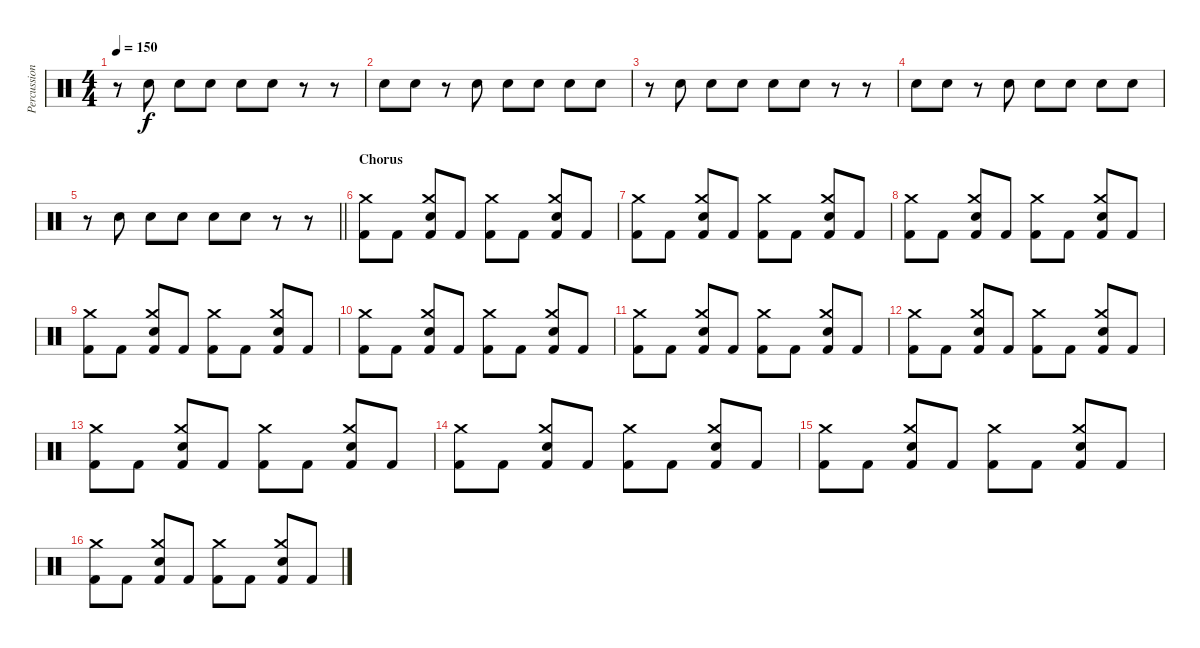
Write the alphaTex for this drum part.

\track ("Percussion" "Percussion") {instrument percussion}
\staff {score}
\articulation defaults
\ts (4 4)
\tempo 150
\clef neutral
\ks c
r.8{dy f} "Electric Snare (hit)".8 "Electric Snare (hit)".8 "Electric Snare (hit)".8 "Electric Snare (hit)".8 "Electric Snare (hit)".8 r.8 r.8 |
"Electric Snare (hit)".8 "Electric Snare (hit)".8 r.8 "Electric Snare (hit)".8 "Electric Snare (hit)".8 "Electric Snare (hit)".8 "Electric Snare (hit)".8 "Electric Snare (hit)".8 |
r.8 "Electric Snare (hit)".8 "Electric Snare (hit)".8 "Electric Snare (hit)".8 "Electric Snare (hit)".8 "Electric Snare (hit)".8 r.8 r.8 |
"Electric Snare (hit)".8 "Electric Snare (hit)".8 r.8 "Electric Snare (hit)".8 "Electric Snare (hit)".8 "Electric Snare (hit)".8 "Electric Snare (hit)".8 "Electric Snare (hit)".8 |
\barLineRight lightlight
r.8 "Electric Snare (hit)".8 "Electric Snare (hit)".8 "Electric Snare (hit)".8 "Electric Snare (hit)".8 "Electric Snare (hit)".8 r.8 r.8 |
\section ("" "Chorus")
("Crash medium (hit)" "Kick (hit) 2").8 "Kick (hit) 2".8 ("Crash medium (hit)" "Electric Snare (hit)" "Kick (hit) 2").8 "Kick (hit) 2".8 ("Crash medium (hit)" "Kick (hit) 2").8 "Kick (hit) 2".8 ("Crash medium (hit)" "Electric Snare (hit)" "Kick (hit) 2").8 "Kick (hit) 2".8 |
("Crash medium (hit)" "Kick (hit) 2").8 "Kick (hit) 2".8 ("Crash medium (hit)" "Electric Snare (hit)" "Kick (hit) 2").8 "Kick (hit) 2".8 ("Crash medium (hit)" "Kick (hit) 2").8 "Kick (hit) 2".8 ("Crash medium (hit)" "Electric Snare (hit)" "Kick (hit) 2").8 "Kick (hit) 2".8 |
("Crash medium (hit)" "Kick (hit) 2").8 "Kick (hit) 2".8 ("Crash medium (hit)" "Electric Snare (hit)" "Kick (hit) 2").8 "Kick (hit) 2".8 ("Crash medium (hit)" "Kick (hit) 2").8 "Kick (hit) 2".8 ("Crash medium (hit)" "Electric Snare (hit)" "Kick (hit) 2").8 "Kick (hit) 2".8 |
("Crash medium (hit)" "Kick (hit) 2").8 "Kick (hit) 2".8 ("Crash medium (hit)" "Electric Snare (hit)" "Kick (hit) 2").8 "Kick (hit) 2".8 ("Crash medium (hit)" "Kick (hit) 2").8 "Kick (hit) 2".8 ("Crash medium (hit)" "Electric Snare (hit)" "Kick (hit) 2").8 "Kick (hit) 2".8 |
("Crash medium (hit)" "Kick (hit) 2").8 "Kick (hit) 2".8 ("Crash medium (hit)" "Electric Snare (hit)" "Kick (hit) 2").8 "Kick (hit) 2".8 ("Crash medium (hit)" "Kick (hit) 2").8 "Kick (hit) 2".8 ("Crash medium (hit)" "Electric Snare (hit)" "Kick (hit) 2").8 "Kick (hit) 2".8 |
("Crash medium (hit)" "Kick (hit) 2").8 "Kick (hit) 2".8 ("Crash medium (hit)" "Electric Snare (hit)" "Kick (hit) 2").8 "Kick (hit) 2".8 ("Crash medium (hit)" "Kick (hit) 2").8 "Kick (hit) 2".8 ("Crash medium (hit)" "Electric Snare (hit)" "Kick (hit) 2").8 "Kick (hit) 2".8 |
("Crash medium (hit)" "Kick (hit) 2").8 "Kick (hit) 2".8 ("Crash medium (hit)" "Electric Snare (hit)" "Kick (hit) 2").8 "Kick (hit) 2".8 ("Crash medium (hit)" "Kick (hit) 2").8 "Kick (hit) 2".8 ("Crash medium (hit)" "Electric Snare (hit)" "Kick (hit) 2").8 "Kick (hit) 2".8 |
("Crash medium (hit)" "Kick (hit) 2").8 "Kick (hit) 2".8 ("Crash medium (hit)" "Electric Snare (hit)" "Kick (hit) 2").8 "Kick (hit) 2".8 ("Crash medium (hit)" "Kick (hit) 2").8 "Kick (hit) 2".8 ("Crash medium (hit)" "Electric Snare (hit)" "Kick (hit) 2").8 "Kick (hit) 2".8 |
("Crash medium (hit)" "Kick (hit) 2").8 "Kick (hit) 2".8 ("Crash medium (hit)" "Electric Snare (hit)" "Kick (hit) 2").8 "Kick (hit) 2".8 ("Crash medium (hit)" "Kick (hit) 2").8 "Kick (hit) 2".8 ("Crash medium (hit)" "Electric Snare (hit)" "Kick (hit) 2").8 "Kick (hit) 2".8 |
("Crash medium (hit)" "Kick (hit) 2").8 "Kick (hit) 2".8 ("Crash medium (hit)" "Electric Snare (hit)" "Kick (hit) 2").8 "Kick (hit) 2".8 ("Crash medium (hit)" "Kick (hit) 2").8 "Kick (hit) 2".8 ("Crash medium (hit)" "Electric Snare (hit)" "Kick (hit) 2").8 "Kick (hit) 2".8 |
("Crash medium (hit)" "Kick (hit) 2").8 "Kick (hit) 2".8 ("Crash medium (hit)" "Electric Snare (hit)" "Kick (hit) 2").8 "Kick (hit) 2".8 ("Crash medium (hit)" "Kick (hit) 2").8 "Kick (hit) 2".8 ("Crash medium (hit)" "Electric Snare (hit)" "Kick (hit) 2").8 "Kick (hit) 2".8
